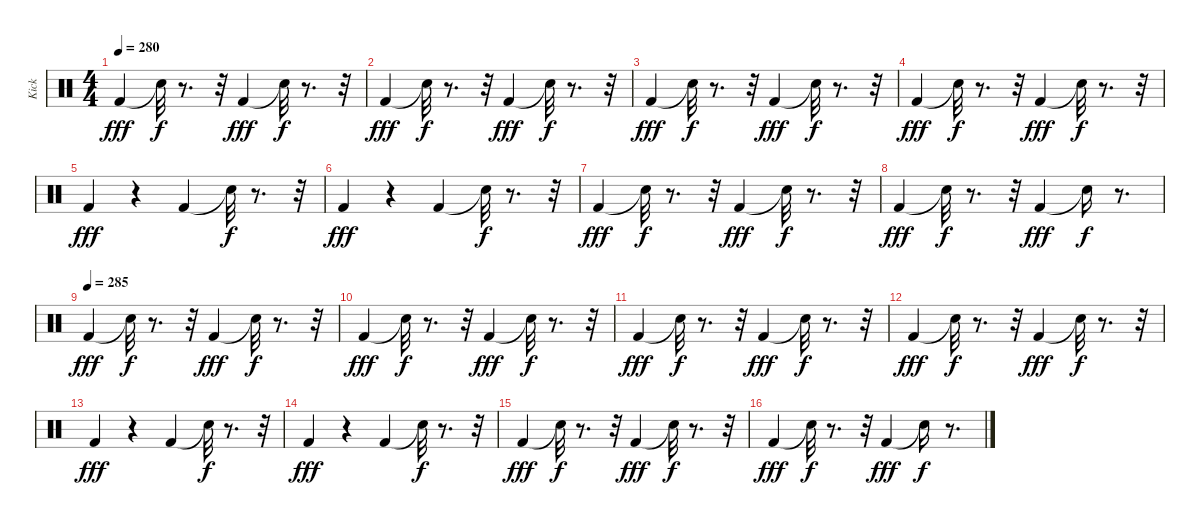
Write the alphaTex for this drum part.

\track ("Kick" "Kick") {instrument percussion}
\staff {score}
\articulation defaults
\ts (4 4)
\tempo 280
\clef neutral
\ks c "Kick (hit) 2".4{dy fff} "Snare (hit)"{t}.32{dy f}
r.8{d} r.32 "Kick (hit) 2".4{dy fff} "Snare (hit)"{t}.32{dy f} r.8{d} r.32 |
"Kick (hit) 2".4{dy fff} "Snare (hit)"{t}.32{dy f} r.8{d} r.32 "Kick (hit) 2".4{dy fff} "Snare (hit)"{t}.32{dy f} r.8{d} r.32 |
"Kick (hit) 2".4{dy fff} "Snare (hit)"{t}.32{dy f} r.8{d} r.32 "Kick (hit) 2".4{dy fff} "Snare (hit)"{t}.32{dy f} r.8{d} r.32 |
"Kick (hit) 2".4{dy fff} "Snare (hit)"{t}.32{dy f} r.8{d} r.32 "Kick (hit) 2".4{dy fff} "Snare (hit)"{t}.32{dy f} r.8{d} r.32 |
"Kick (hit) 2".4{dy fff} r.4 "Kick (hit) 2".4 "Snare (hit)"{t}.32{dy f} r.8{d} r.32 |
"Kick (hit) 2".4{dy fff} r.4 "Kick (hit) 2".4 "Snare (hit)"{t}.32{dy f} r.8{d} r.32 |
"Kick (hit) 2".4{dy fff} "Snare (hit)"{t}.32{dy f} r.8{d} r.32 "Kick (hit) 2".4{dy fff} "Snare (hit)"{t}.32{dy f} r.8{d} r.32 |
"Kick (hit) 2".4{dy fff} "Snare (hit)"{t}.32{dy f} r.8{d} r.32 "Kick (hit) 2".4{dy fff} "Snare (hit)"{t}.16{dy f} r.8{d} |
\tempo (285)
"Kick (hit) 2".4{dy fff} "Snare (hit)"{t}.32{dy f} r.8{d} r.32 "Kick (hit) 2".4{dy fff} "Snare (hit)"{t}.32{dy f} r.8{d} r.32 |
"Kick (hit) 2".4{dy fff} "Snare (hit)"{t}.32{dy f} r.8{d} r.32 "Kick (hit) 2".4{dy fff} "Snare (hit)"{t}.32{dy f} r.8{d} r.32 |
"Kick (hit) 2".4{dy fff} "Snare (hit)"{t}.32{dy f} r.8{d} r.32 "Kick (hit) 2".4{dy fff} "Snare (hit)"{t}.32{dy f} r.8{d} r.32 |
"Kick (hit) 2".4{dy fff} "Snare (hit)"{t}.32{dy f} r.8{d} r.32 "Kick (hit) 2".4{dy fff} "Snare (hit)"{t}.32{dy f} r.8{d} r.32 |
"Kick (hit) 2".4{dy fff} r.4 "Kick (hit) 2".4 "Snare (hit)"{t}.32{dy f} r.8{d} r.32 |
"Kick (hit) 2".4{dy fff} r.4 "Kick (hit) 2".4 "Snare (hit)"{t}.32{dy f} r.8{d} r.32 |
"Kick (hit) 2".4{dy fff} "Snare (hit)"{t}.32{dy f} r.8{d} r.32 "Kick (hit) 2".4{dy fff} "Snare (hit)"{t}.32{dy f} r.8{d} r.32 |
"Kick (hit) 2".4{dy fff} "Snare (hit)"{t}.32{dy f} r.8{d} r.32 "Kick (hit) 2".4{dy fff} "Snare (hit)"{t}.16{dy f} r.8{d}
